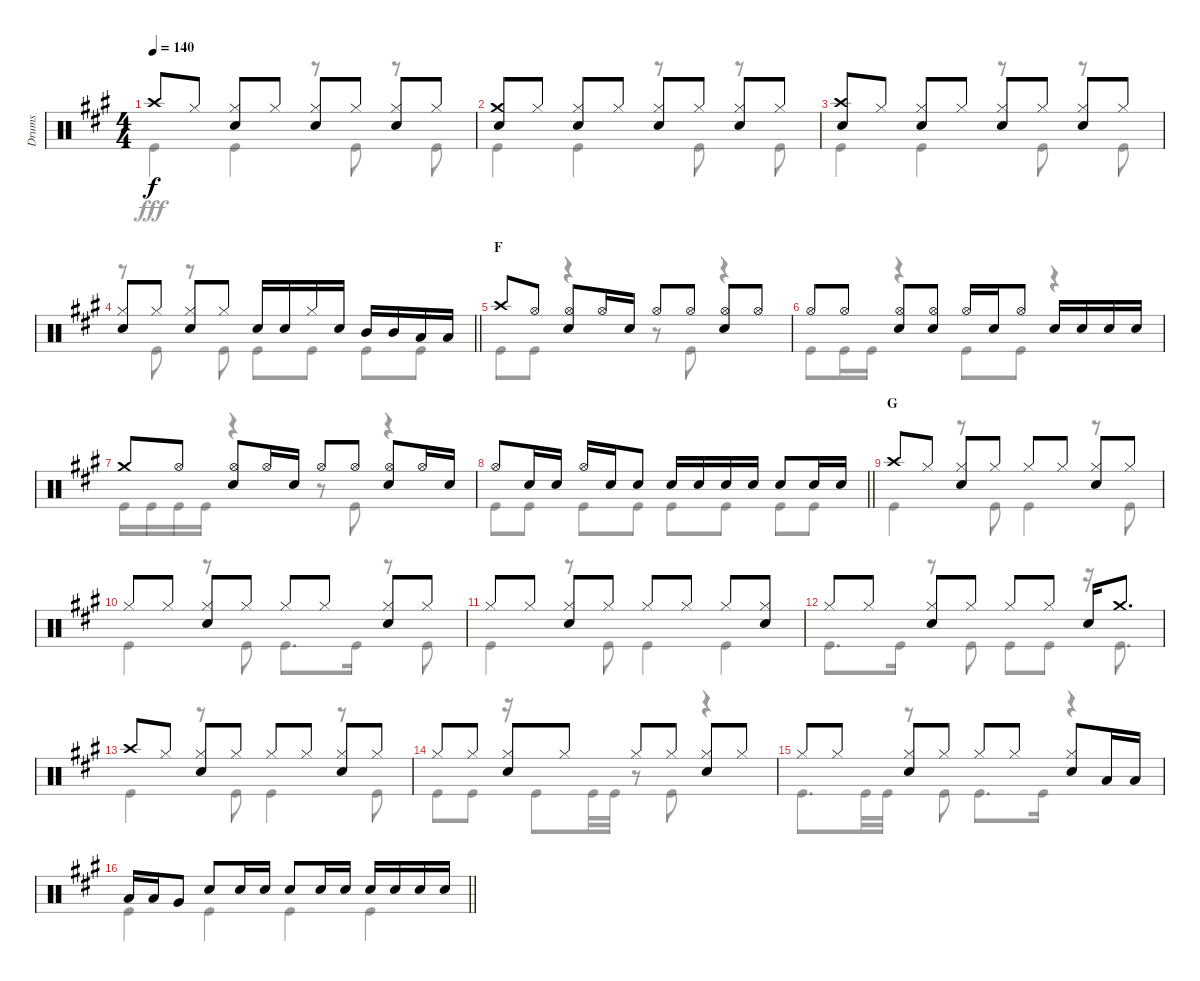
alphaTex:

\track ("Drums" "Drums") {instrument percussion}
\staff {score}
\articulation defaults
\voice
\ts (4 4)
\tempo 140
\clef neutral
\ks a "Crash high (hit)".8{dy f} "Hi-Hat (closed)".8
("Hi-Hat (closed)" "Snare (hit) 2").8 "Hi-Hat (closed)".8 ("Hi-Hat (closed)" "Snare (hit) 2").8 "Hi-Hat (closed)".8 ("Hi-Hat (closed)" "Snare (hit) 2").8 "Hi-Hat (closed)".8 |
("Crash medium (hit)" "Snare (hit) 2").8 "Hi-Hat (closed)".8 ("Hi-Hat (closed)" "Snare (hit) 2").8 "Hi-Hat (closed)".8 ("Hi-Hat (closed)" "Snare (hit) 2").8 "Hi-Hat (closed)".8 ("Hi-Hat (closed)" "Snare (hit) 2").8 "Hi-Hat (closed)".8 |
("Crash high (hit)" "Snare (hit) 2").8 "Hi-Hat (closed)".8 ("Hi-Hat (closed)" "Snare (hit) 2").8 "Hi-Hat (closed)".8 ("Hi-Hat (closed)" "Snare (hit) 2").8 "Hi-Hat (closed)".8 ("Hi-Hat (closed)" "Snare (hit) 2").8 "Hi-Hat (closed)".8 |
\barLineRight lightlight
("Hi-Hat (closed)" "Snare (hit) 2").8 "Hi-Hat (closed)".8 ("Hi-Hat (closed)" "Snare (hit) 2").8 "Hi-Hat (closed)".8 "Snare (hit) 2".16 "Snare (hit) 2".16 "Hi-Hat (closed)".16 "Snare (hit) 2".16 "Mid Tom (hit)".16 "Mid Tom (hit)".16 "Low Tom (hit)".16 "Low Tom (hit)".16 |
\section ("" "F")
"Crash high (hit)".8 "Hi-Hat (open)".8 ("Hi-Hat (open)" "Snare (hit) 2").8 "Hi-Hat (open)".16 "Snare (hit) 2".16 "Hi-Hat (open)".8 "Hi-Hat (open)".8 ("Hi-Hat (open)" "Snare (hit) 2").8 "Hi-Hat (open)".8 |
"Hi-Hat (open)".8 "Hi-Hat (open)".8 ("Hi-Hat (open)" "Snare (hit) 2").8 ("Hi-Hat (open)" "Snare (hit) 2").8 "Hi-Hat (open)".16 "Snare (hit) 2".16 "Hi-Hat (open)".8 "Snare (hit) 2".16 "Snare (hit) 2".16 "Snare (hit) 2".16 "Snare (hit) 2".16 |
"Crash medium (hit)".8 "Hi-Hat (open)".8 ("Hi-Hat (open)" "Snare (hit) 2").8 "Hi-Hat (open)".16 "Snare (hit) 2".16 "Hi-Hat (open)".8 "Hi-Hat (open)".8 ("Hi-Hat (open)" "Snare (hit) 2").8 "Hi-Hat (open)".16 "Snare (hit) 2".16 |
\barLineRight lightlight "Hi-Hat (open)".8 "Snare (hit) 2".16 "Snare (hit) 2".16 "Hi-Hat (open)".16 "Snare (hit) 2".16 "Snare (hit) 2".8 "Snare (hit) 2".16 "Snare (hit) 2".16 "Snare (hit) 2".16 "Snare (hit) 2".16 "Snare (hit) 2".8 "Snare (hit) 2".16 "Snare (hit) 2".16
|
\section ("" "G")
"Crash high (hit)".8 "Hi-Hat (closed)".8 ("Hi-Hat (closed)" "Snare (hit) 2").8 "Hi-Hat (closed)".8 "Hi-Hat (closed)".8 "Hi-Hat (closed)".8 ("Hi-Hat (closed)" "Snare (hit) 2").8 "Hi-Hat (closed)".8 |
"Hi-Hat (closed)".8 "Hi-Hat (closed)".8 ("Hi-Hat (closed)" "Snare (hit) 2").8 "Hi-Hat (closed)".8 "Hi-Hat (closed)".8 "Hi-Hat (closed)".8 ("Hi-Hat (closed)" "Snare (hit) 2").8 "Hi-Hat (closed)".8 |
"Hi-Hat (closed)".8 "Hi-Hat (closed)".8 ("Hi-Hat (closed)" "Snare (hit) 2").8 "Hi-Hat (closed)".8 "Hi-Hat (closed)".8 "Hi-Hat (closed)".8 "Hi-Hat (closed)".8 ("Hi-Hat (closed)" "Snare (hit) 2").8 |
"Hi-Hat (closed)".8 "Hi-Hat (closed)".8 ("Hi-Hat (closed)" "Snare (hit) 2").8 "Hi-Hat (closed)".8 "Hi-Hat (closed)".8 "Hi-Hat (closed)".8 "Snare (hit) 2".16 "Crash medium (hit)".8{d} |
"Crash high (hit)".8 "Hi-Hat (closed)".8 ("Hi-Hat (closed)" "Snare (hit) 2").8 "Hi-Hat (closed)".8 "Hi-Hat (closed)".8 "Hi-Hat (closed)".8 ("Hi-Hat (closed)" "Snare (hit) 2").8 "Hi-Hat (closed)".8 |
"Hi-Hat (closed)".8 "Hi-Hat (closed)".8 ("Hi-Hat (closed)" "Snare (hit) 2").8 "Hi-Hat (closed)".8 "Hi-Hat (closed)".8 "Hi-Hat (closed)".8 ("Hi-Hat (closed)" "Snare (hit) 2").8 "Hi-Hat (closed)".8 |
"Hi-Hat (closed)".8 "Hi-Hat (closed)".8 ("Hi-Hat (closed)" "Snare (hit) 2").8 "Hi-Hat (closed)".8 "Hi-Hat (closed)".8 "Hi-Hat (closed)".8 ("Hi-Hat (closed)" "Snare (hit) 2").8 "Low Tom (hit)".16 "Low Tom (hit)".16 |
\barLineRight lightlight "Low Tom (hit)".16 "Low Tom (hit)".16 "Very Low Tom (hit)".8 "Snare (hit) 2".8 "Snare (hit) 2".16 "Snare (hit) 2".16 "Snare (hit) 2".8 "Snare (hit) 2".16 "Snare (hit) 2".16 "Snare (hit) 2".16 "Snare (hit) 2".16 "Snare (hit) 2".16 "Snare (hit) 2".16
\voice
\clef neutral
\ottava regular
\simile none
\ks a "Kick (hit)".4{dy fff} "Kick (hit)".4
r.8 "Kick (hit)".8 r.8 "Kick (hit)".8 |
"Kick (hit)".4 "Kick (hit)".4 r.8 "Kick (hit)".8 r.8 "Kick (hit)".8 |
"Kick (hit)".4 "Kick (hit)".4 r.8 "Kick (hit)".8 r.8 "Kick (hit)".8 |
\barLineRight lightlight
r.8 "Kick (hit)".8 r.8 "Kick (hit)".8 "Kick (hit)".8 "Kick (hit)".8 "Kick (hit)".8 "Kick (hit)".8 |
"Kick (hit)".8 "Kick (hit)".8 r.4 r.8 "Kick (hit)".8 r.4 |
"Kick (hit)".8 "Kick (hit)".16 "Kick (hit)".16 r.4 "Kick (hit)".8 "Kick (hit)".8 r.4 |
"Kick (hit)".16 "Kick (hit)".16 "Kick (hit)".16 "Kick (hit)".16 r.4 r.8 "Kick (hit)".8 r.4 |
\barLineRight lightlight "Kick (hit)".8 "Kick (hit)".8 "Kick (hit)".8 "Kick (hit)".8 "Kick (hit)".8 "Kick (hit)".8 "Kick (hit)".8 "Kick (hit)".8
|
"Kick (hit)".4 r.8 "Kick (hit)".8 "Kick (hit)".4 r.8 "Kick (hit)".8 |
"Kick (hit)".4 r.8 "Kick (hit)".8 "Kick (hit)".8{d} "Kick (hit)".16 r.8 "Kick (hit)".8 |
"Kick (hit)".4 r.8 "Kick (hit)".8 "Kick (hit)".4 "Kick (hit)".4 |
"Kick (hit)".8{d} "Kick (hit)".16 r.8 "Kick (hit)".8 "Kick (hit)".8 "Kick (hit)".8 r.16 "Kick (hit)".8{d} |
"Kick (hit)".4 r.8 "Kick (hit)".8 "Kick (hit)".4 r.8 "Kick (hit)".8 |
"Kick (hit)".8 "Kick (hit)".8 r.16 "Kick (hit)".8 "Kick (hit)".32 "Kick (hit)".32 r.8 "Kick (hit)".8 r.4 |
"Kick (hit)".8{d} "Kick (hit)".32 "Kick (hit)".32 r.8 "Kick (hit)".8 "Kick (hit)".8{d} "Kick (hit)".16 r.4 |
\barLineRight lightlight "Kick (hit)".4 "Kick (hit)".4 "Kick (hit)".4 "Kick (hit)".4
